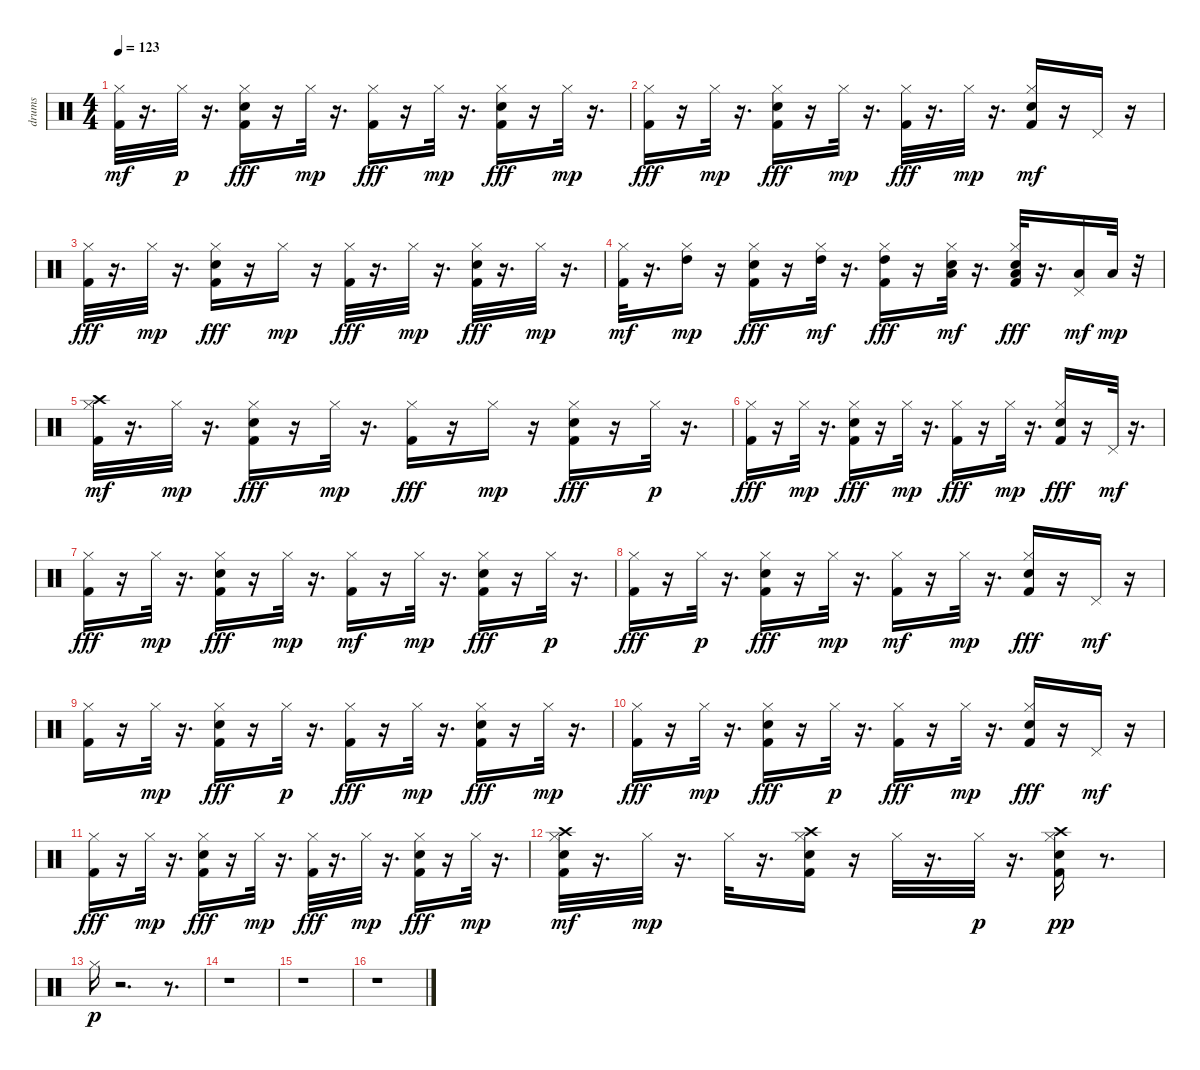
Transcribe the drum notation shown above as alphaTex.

\track ("drums   " "drums   ") {instrument percussion}
\staff {score}
\articulation defaults
\ts (4 4)
\tempo 123
\clef neutral
\ks c
("Kick (hit) 2" "Hi-Hat (closed)").32{dy mf} r.16{d} "Hi-Hat (closed)".32{dy p} r.16{d} ("Kick (hit) 2" "Hi-Hat (closed)" "Snare (hit) 2").16{dy fff} r.16 "Hi-Hat (closed)".32{dy mp} r.16{d} ("Hi-Hat (closed)" "Kick (hit) 2").16{dy fff} r.16 "Hi-Hat (closed)".32{dy mp} r.16{d} ("Hi-Hat (closed)" "Kick (hit) 2" "Snare (hit) 2").16{dy fff} r.16 "Hi-Hat (closed)".32{dy mp} r.16{d} |
("Hi-Hat (closed)" "Kick (hit) 2").16{dy fff} r.16 "Hi-Hat (closed)".32{dy mp} r.16{d} ("Hi-Hat (closed)" "Kick (hit) 2" "Snare (hit) 2").16{dy fff} r.16 "Hi-Hat (closed)".32{dy mp} r.16{d} ("Kick (hit) 2" "Hi-Hat (closed)").32{dy fff} r.16{d} "Hi-Hat (closed)".32{dy mp} r.16{d} ("Snare (hit) 2" "Kick (hit) 2" "Hi-Hat (closed)").16{dy mf} r.16 "Pedal Hi-Hat (hit)".16 r.16 |
("Hi-Hat (closed)" "Kick (hit) 2").32{dy fff} r.16{d} "Hi-Hat (closed)".32{dy mp} r.16{d} ("Kick (hit) 2" "Hi-Hat (closed)" "Snare (hit) 2").16{dy fff} r.16 "Hi-Hat (closed)".16{dy mp} r.16 ("Hi-Hat (closed)" "Kick (hit) 2").32{dy fff} r.16{d} "Hi-Hat (closed)".32{dy mp} r.16{d} ("Hi-Hat (closed)" "Kick (hit) 2" "Snare (hit) 2").32{dy fff} r.16{d} "Hi-Hat (closed)".32{dy mp} r.16{d} |
("Kick (hit) 2" "Hi-Hat (closed)").32{dy mf} r.16{d} ("Hi-Hat (closed)" "High Tom (hit)").16{dy mp} r.16 ("Snare (hit) 2" "Kick (hit) 2" "Hi-Hat (closed)").16{dy fff} r.16 ("Hi-Hat (closed)" "High Tom (hit)").32{dy mf} r.16{d} ("Kick (hit) 2" "Hi-Hat (closed)" "High Tom (hit)").16{dy fff} r.16 ("Hi-Hat (closed)" "Snare (hit) 2" "Low Tom (hit)").32{dy mf} r.16{d} ("Kick (hit) 2" "Hi-Hat (closed)" "Snare (hit) 2" "Low Tom (hit)").32{dy fff} r.16{d} ("Pedal Hi-Hat (hit)" "Low Floor Tom (hit)").16{dy mf} "Low Floor Tom (hit)".32{dy mp} r.32 |
("Kick (hit) 2" "Hi-Hat (closed)" "Crash high (hit)").32{dy mf} r.16{d} "Hi-Hat (closed)".32{dy mp} r.16{d} ("Hi-Hat (closed)" "Kick (hit) 2" "Snare (hit) 2").16{dy fff} r.16 "Hi-Hat (closed)".32{dy mp} r.16{d} ("Hi-Hat (closed)" "Kick (hit) 2").16{dy fff} r.16 "Hi-Hat (closed)".16{dy mp} r.16 ("Kick (hit) 2" "Hi-Hat (closed)" "Snare (hit) 2").16{dy fff} r.16 "Hi-Hat (closed)".32{dy p} r.16{d} |
("Hi-Hat (closed)" "Kick (hit) 2").16{dy fff} r.16 "Hi-Hat (closed)".32{dy mp} r.16{d} ("Kick (hit) 2" "Hi-Hat (closed)" "Snare (hit) 2").16{dy fff} r.16 "Hi-Hat (closed)".32{dy mp} r.16{d} ("Hi-Hat (closed)" "Kick (hit) 2").16{dy fff} r.16 "Hi-Hat (closed)".32{dy mp} r.16{d} ("Kick (hit) 2" "Hi-Hat (closed)" "Snare (hit) 2").16{dy fff} r.16 "Pedal Hi-Hat (hit)".32{dy mf} r.16{d} |
("Hi-Hat (closed)" "Kick (hit) 2").16{dy fff} r.16 "Hi-Hat (closed)".32{dy mp} r.16{d} ("Kick (hit) 2" "Hi-Hat (closed)" "Snare (hit) 2").16{dy fff} r.16 "Hi-Hat (closed)".32{dy mp} r.16{d} ("Kick (hit) 2" "Hi-Hat (closed)").16{dy mf} r.16 "Hi-Hat (closed)".32{dy mp} r.16{d} ("Kick (hit) 2" "Hi-Hat (closed)" "Snare (hit) 2").16{dy fff} r.16 "Hi-Hat (closed)".32{dy p} r.16{d} |
("Kick (hit) 2" "Hi-Hat (closed)").16{dy fff} r.16 "Hi-Hat (closed)".32{dy p} r.16{d} ("Kick (hit) 2" "Hi-Hat (closed)" "Snare (hit) 2").16{dy fff} r.16 "Hi-Hat (closed)".32{dy mp} r.16{d} ("Kick (hit) 2" "Hi-Hat (closed)").16{dy mf} r.16 "Hi-Hat (closed)".32{dy mp} r.16{d} ("Kick (hit) 2" "Hi-Hat (closed)" "Snare (hit) 2").16{dy fff} r.16 "Pedal Hi-Hat (hit)".16{dy mf} r.16 |
("Kick (hit) 2" "Hi-Hat (closed)").16 r.16 "Hi-Hat (closed)".32{dy mp} r.16{d} ("Hi-Hat (closed)" "Kick (hit) 2" "Snare (hit) 2").16{dy fff} r.16 "Hi-Hat (closed)".32{dy p} r.16{d} ("Hi-Hat (closed)" "Kick (hit) 2").16{dy fff} r.16 "Hi-Hat (closed)".32{dy mp} r.16{d} ("Kick (hit) 2" "Hi-Hat (closed)" "Snare (hit) 2").16{dy fff} r.16 "Hi-Hat (closed)".32{dy mp} r.16{d} |
("Hi-Hat (closed)" "Kick (hit) 2").16{dy fff} r.16 "Hi-Hat (closed)".32{dy mp} r.16{d} ("Snare (hit) 2" "Kick (hit) 2" "Hi-Hat (closed)").16{dy fff} r.16 "Hi-Hat (closed)".32{dy p} r.16{d} ("Hi-Hat (closed)" "Kick (hit) 2").16{dy fff} r.16 "Hi-Hat (closed)".32{dy mp} r.16{d} ("Kick (hit) 2" "Hi-Hat (closed)" "Snare (hit) 2").16{dy fff} r.16 "Pedal Hi-Hat (hit)".16{dy mf} r.16 |
("Hi-Hat (closed)" "Kick (hit) 2").16{dy fff} r.16 "Hi-Hat (closed)".32{dy mp} r.16{d} ("Kick (hit) 2" "Hi-Hat (closed)" "Snare (hit) 2").16{dy fff} r.16 "Hi-Hat (closed)".32{dy mp} r.16{d} ("Hi-Hat (closed)" "Kick (hit) 2").32{dy fff} r.16{d} "Hi-Hat (closed)".32{dy mp} r.16{d} ("Kick (hit) 2" "Hi-Hat (closed)" "Snare (hit) 2").16{dy fff} r.16 "Hi-Hat (closed)".32{dy mp} r.16{d} |
("Hi-Hat (closed)" "Snare (hit) 2" "Kick (hit) 2" "Crash high (hit)").32{dy mf} r.16{d} "Hi-Hat (closed)".32{dy mp} r.16{d} "Hi-Hat (closed)".32 r.16{d} ("Kick (hit) 2" "Hi-Hat (closed)" "Snare (hit) 2" "Crash high (hit)").16 r.16 "Hi-Hat (closed)".32 r.16{d} "Hi-Hat (closed)".32{dy p} r.16{d} ("Kick (hit) 2" "Hi-Hat (closed)" "Snare (hit) 2" "Crash high (hit)").16{dy pp} r.8{d} |
"Hi-Hat (closed)".16{dy p} r.2{d} r.8{d} |
r.1 |
r.1 |
r.1
